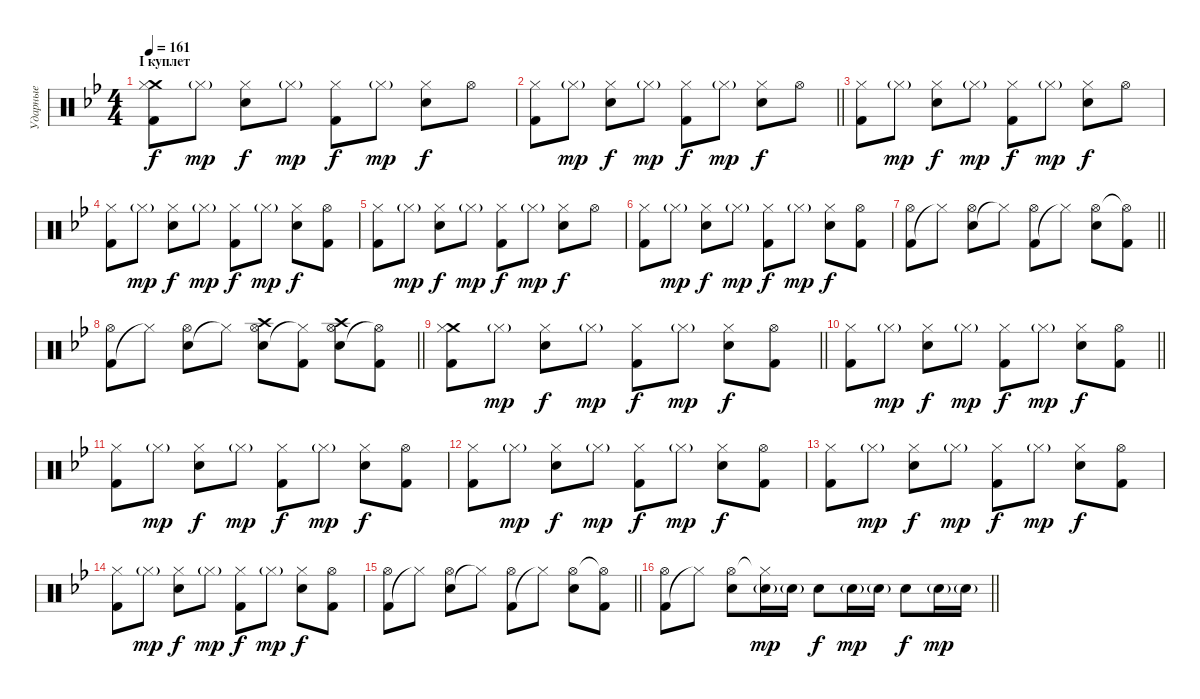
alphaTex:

\track ("Ударные" "Ударные") {instrument percussion}
\staff {score}
\articulation defaults
\ts (4 4)
\section ("" "I куплет")
\tempo 161
\clef neutral
\ks gminor
("Crash medium (hit)" "Kick (hit) 2" "Hi-Hat (closed)").8{dy f} "Hi-Hat (closed)"{g}.8{dy mp} ("Electric Snare (hit)" "Hi-Hat (closed)").8{dy f} "Hi-Hat (closed)"{g}.8{dy mp} ("Kick (hit) 2" "Hi-Hat (closed)").8{dy f} "Hi-Hat (closed)"{g}.8{dy mp} ("Electric Snare (hit)" "Hi-Hat (closed)").8{dy f} "Hi-Hat (open)".8 |
\barLineRight lightlight
("Kick (hit) 2" "Hi-Hat (closed)").8 "Hi-Hat (closed)"{g}.8{dy mp} ("Electric Snare (hit)" "Hi-Hat (closed)").8{dy f} "Hi-Hat (closed)"{g}.8{dy mp} ("Kick (hit) 2" "Hi-Hat (closed)").8{dy f} "Hi-Hat (closed)"{g}.8{dy mp} ("Electric Snare (hit)" "Hi-Hat (closed)").8{dy f} "Hi-Hat (open)".8 |
("Kick (hit) 2" "Hi-Hat (closed)").8 "Hi-Hat (closed)"{g}.8{dy mp} ("Electric Snare (hit)" "Hi-Hat (closed)").8{dy f} "Hi-Hat (closed)"{g}.8{dy mp} ("Kick (hit) 2" "Hi-Hat (closed)").8{dy f} "Hi-Hat (closed)"{g}.8{dy mp} ("Electric Snare (hit)" "Hi-Hat (closed)").8{dy f} "Hi-Hat (open)".8 |
("Kick (hit) 2" "Hi-Hat (closed)").8 "Hi-Hat (closed)"{g}.8{dy mp} ("Electric Snare (hit)" "Hi-Hat (closed)").8{dy f} "Hi-Hat (closed)"{g}.8{dy mp} ("Kick (hit) 2" "Hi-Hat (closed)").8{dy f} "Hi-Hat (closed)"{g}.8{dy mp} ("Electric Snare (hit)" "Hi-Hat (closed)").8{dy f} ("Kick (hit) 2" "Hi-Hat (open)").8 |
("Kick (hit) 2" "Hi-Hat (closed)").8 "Hi-Hat (closed)"{g}.8{dy mp} ("Electric Snare (hit)" "Hi-Hat (closed)").8{dy f} "Hi-Hat (closed)"{g}.8{dy mp} ("Kick (hit) 2" "Hi-Hat (closed)").8{dy f} "Hi-Hat (closed)"{g}.8{dy mp} ("Electric Snare (hit)" "Hi-Hat (closed)").8{dy f} "Hi-Hat (open)".8 |
("Kick (hit) 2" "Hi-Hat (closed)").8 "Hi-Hat (closed)"{g}.8{dy mp} ("Electric Snare (hit)" "Hi-Hat (closed)").8{dy f} "Hi-Hat (closed)"{g}.8{dy mp} ("Kick (hit) 2" "Hi-Hat (closed)").8{dy f} "Hi-Hat (closed)"{g}.8{dy mp} ("Electric Snare (hit)" "Hi-Hat (closed)").8{dy f} ("Kick (hit) 2" "Hi-Hat (open)").8 |
\barLineRight lightlight
("Kick (hit) 2" "Hi-Hat (open)").8 "Hi-Hat (closed)"{t}.8 ("Electric Snare (hit)" "Hi-Hat (open)").8 "Hi-Hat (closed)"{t}.8 ("Kick (hit) 2" "Hi-Hat (open)").8 "Hi-Hat (closed)"{t}.8 ("Electric Snare (hit)" "Hi-Hat (open)").8 ("Kick (hit) 2" "Hi-Hat (open)"{t}).8 |
\barLineRight lightlight
("Kick (hit) 2" "Hi-Hat (open)").8 "Hi-Hat (closed)"{t}.8 ("Electric Snare (hit)" "Hi-Hat (open)").8 "Hi-Hat (closed)"{t}.8 ("Crash high (hit)" "Electric Snare (hit)" "Hi-Hat (open)").8 ("Kick (hit) 2" "Hi-Hat (closed)"{t}).8 ("Crash high (hit)" "Electric Snare (hit)" "Hi-Hat (open)").8 ("Kick (hit) 2" "Hi-Hat (open)"{t}).8 |
\barLineRight lightlight
("Crash medium (hit)" "Kick (hit) 2" "Hi-Hat (closed)").8 "Hi-Hat (closed)"{g}.8{dy mp} ("Electric Snare (hit)" "Hi-Hat (closed)").8{dy f} "Hi-Hat (closed)"{g}.8{dy mp} ("Kick (hit) 2" "Hi-Hat (closed)").8{dy f} "Hi-Hat (closed)"{g}.8{dy mp} ("Electric Snare (hit)" "Hi-Hat (closed)").8{dy f} ("Kick (hit) 2" "Hi-Hat (open)").8 |
\barLineRight lightlight
("Kick (hit) 2" "Hi-Hat (closed)").8 "Hi-Hat (closed)"{g}.8{dy mp} ("Electric Snare (hit)" "Hi-Hat (closed)").8{dy f} "Hi-Hat (closed)"{g}.8{dy mp} ("Kick (hit) 2" "Hi-Hat (closed)").8{dy f} "Hi-Hat (closed)"{g}.8{dy mp} ("Electric Snare (hit)" "Hi-Hat (closed)").8{dy f} ("Kick (hit) 2" "Hi-Hat (open)").8 |
("Kick (hit) 2" "Hi-Hat (closed)").8 "Hi-Hat (closed)"{g}.8{dy mp} ("Electric Snare (hit)" "Hi-Hat (closed)").8{dy f} "Hi-Hat (closed)"{g}.8{dy mp} ("Kick (hit) 2" "Hi-Hat (closed)").8{dy f} "Hi-Hat (closed)"{g}.8{dy mp} ("Electric Snare (hit)" "Hi-Hat (closed)").8{dy f} ("Kick (hit) 2" "Hi-Hat (open)").8 |
("Kick (hit) 2" "Hi-Hat (closed)").8 "Hi-Hat (closed)"{g}.8{dy mp} ("Electric Snare (hit)" "Hi-Hat (closed)").8{dy f} "Hi-Hat (closed)"{g}.8{dy mp} ("Kick (hit) 2" "Hi-Hat (closed)").8{dy f} "Hi-Hat (closed)"{g}.8{dy mp} ("Electric Snare (hit)" "Hi-Hat (closed)").8{dy f} ("Kick (hit) 2" "Hi-Hat (open)").8 |
("Kick (hit) 2" "Hi-Hat (closed)").8 "Hi-Hat (closed)"{g}.8{dy mp} ("Electric Snare (hit)" "Hi-Hat (closed)").8{dy f} "Hi-Hat (closed)"{g}.8{dy mp} ("Kick (hit) 2" "Hi-Hat (closed)").8{dy f} "Hi-Hat (closed)"{g}.8{dy mp} ("Electric Snare (hit)" "Hi-Hat (closed)").8{dy f} ("Kick (hit) 2" "Hi-Hat (open)").8 |
("Kick (hit) 2" "Hi-Hat (closed)").8 "Hi-Hat (closed)"{g}.8{dy mp} ("Electric Snare (hit)" "Hi-Hat (closed)").8{dy f} "Hi-Hat (closed)"{g}.8{dy mp} ("Kick (hit) 2" "Hi-Hat (closed)").8{dy f} "Hi-Hat (closed)"{g}.8{dy mp} ("Electric Snare (hit)" "Hi-Hat (closed)").8{dy f} ("Kick (hit) 2" "Hi-Hat (open)").8 |
\barLineRight lightlight
("Kick (hit) 2" "Hi-Hat (open)").8 "Hi-Hat (closed)"{t}.8 ("Electric Snare (hit)" "Hi-Hat (open)").8 "Hi-Hat (closed)"{t}.8 ("Kick (hit) 2" "Hi-Hat (open)").8 "Hi-Hat (closed)"{t}.8 ("Electric Snare (hit)" "Hi-Hat (open)").8 ("Kick (hit) 2" "Hi-Hat (open)"{t}).8 |
\barLineRight lightlight
("Kick (hit) 2" "Hi-Hat (open)").8 "Hi-Hat (closed)"{t}.8 ("Electric Snare (hit)" "Hi-Hat (open)").8 ("Electric Snare (hit)"{g} "Hi-Hat (closed)"{t}).16{dy mp} "Electric Snare (hit)"{g}.16 "Electric Snare (hit)".8{dy f} "Electric Snare (hit)"{g}.16{dy mp} "Electric Snare (hit)"{g}.16 "Electric Snare (hit)".8{dy f} "Electric Snare (hit)"{g}.16{dy mp} "Electric Snare (hit)"{g}.16
